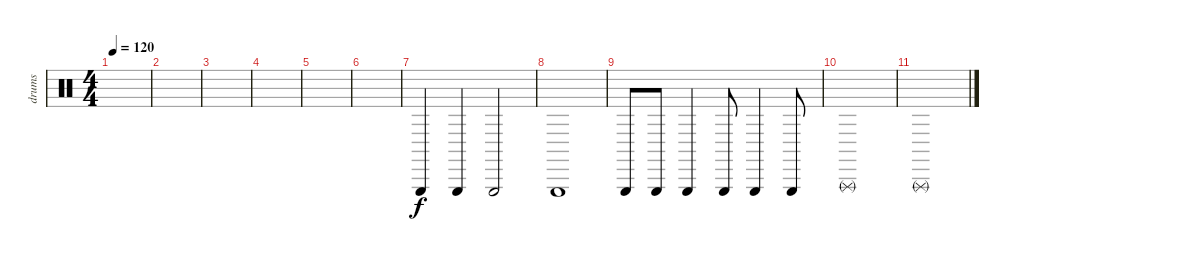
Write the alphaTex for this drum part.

\track ("drums" "drums") {instrument percussion}
\staff {score}
\articulation defaults
\ts (4 4)
\tempo 120
\clef neutral
\ks c
|
|
|
|
|
|
"Triangle (hit)".4 "Triangle (hit)".4 "Triangle (hit)".2 |
"Triangle (hit)".1 |
"Triangle (hit)".8 "Triangle (hit)".8 "Triangle (hit)".4 "Triangle (hit)".8 "Triangle (hit)".4 "Triangle (hit)".8 |
"Triangle (rnute)".1 |
"Triangle (rnute)".1
